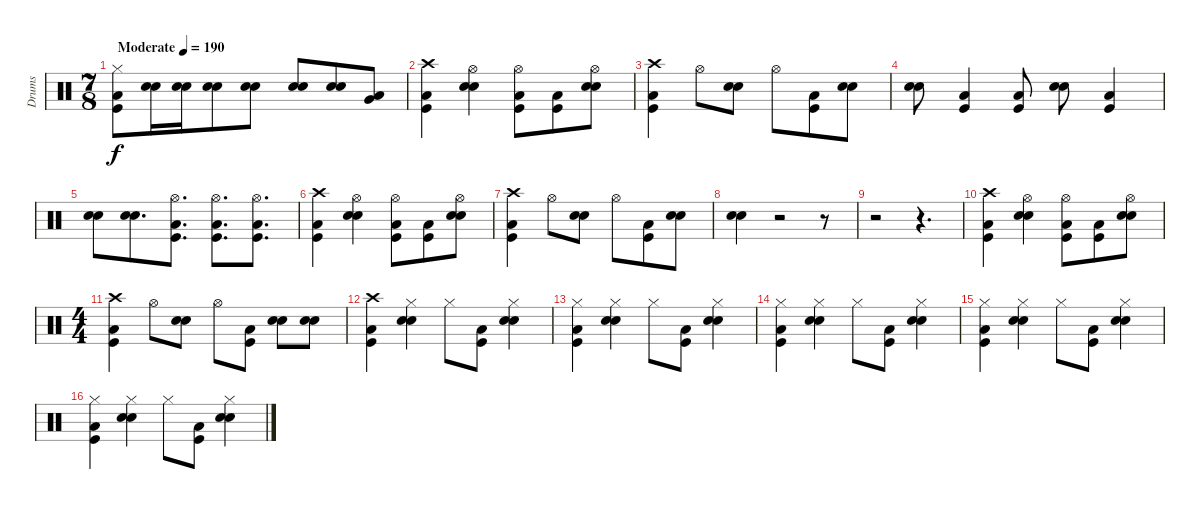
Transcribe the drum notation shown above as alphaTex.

\track ("Drums" "Drums") {instrument percussion}
\staff {score}
\articulation defaults
\ts (7 8)
\tempo (190 "Moderate")
\clef neutral
\ks c
("Hi-Hat (closed)" "Kick (hit)" "Low Tom (hit)").8{dy f} ("Snare (hit) 2" "Electric Snare (hit)").16 ("Snare (hit) 2" "Electric Snare (hit)").16 ("Snare (hit) 2" "Electric Snare (hit)").8 ("Snare (hit) 2" "Electric Snare (hit)").8 ("Snare (hit) 2" "Electric Snare (hit)").8 ("Snare (hit) 2" "Electric Snare (hit)").8 ("Very Low Tom (hit)" "Low Tom (hit)").8 |
("Crash high (hit)" "Kick (hit)" "Low Tom (hit)").4 ("Hi-Hat (open)" "Snare (hit) 2" "Electric Snare (hit)").4 ("Hi-Hat (open)" "Kick (hit)" "Low Tom (hit)").8 ("Kick (hit)" "Low Tom (hit)").8 ("Hi-Hat (open)" "Snare (hit) 2" "Electric Snare (hit)").8 |
("Crash high (hit)" "Kick (hit)" "Low Tom (hit)").4 "Hi-Hat (open)".8 ("Snare (hit) 2" "Electric Snare (hit)").8 "Hi-Hat (open)".8 ("Kick (hit)" "Low Tom (hit)").8 ("Snare (hit) 2" "Electric Snare (hit)").8 |
("Snare (hit) 2" "Electric Snare (hit)").8 ("Kick (hit)" "Low Tom (hit)").4 ("Kick (hit)" "Low Tom (hit)").8 ("Snare (hit) 2" "Electric Snare (hit)").8 ("Kick (hit)" "Low Tom (hit)").4 |
("Snare (hit) 2" "Electric Snare (hit)").8 ("Snare (hit) 2" "Electric Snare (hit)").8{d} ("Hi-Hat (open)" "Kick (hit)" "Low Tom (hit)").8{d} ("Hi-Hat (open)" "Kick (hit)" "Low Tom (hit)").8{d} ("Hi-Hat (open)" "Kick (hit)" "Low Tom (hit)").8{d} |
("Crash high (hit)" "Kick (hit)" "Low Tom (hit)").4 ("Hi-Hat (open)" "Snare (hit) 2" "Electric Snare (hit)").4 ("Hi-Hat (open)" "Kick (hit)" "Low Tom (hit)").8 ("Kick (hit)" "Low Tom (hit)").8 ("Hi-Hat (open)" "Snare (hit) 2" "Electric Snare (hit)").8 |
("Crash high (hit)" "Kick (hit)" "Low Tom (hit)").4 "Hi-Hat (open)".8 ("Snare (hit) 2" "Electric Snare (hit)").8 "Hi-Hat (open)".8 ("Kick (hit)" "Low Tom (hit)").8 ("Snare (hit) 2" "Electric Snare (hit)").8 |
("Snare (hit) 2" "Electric Snare (hit)").4 r.2 r.8 |
r.2 r.4{d} |
("Crash high (hit)" "Kick (hit)" "Low Tom (hit)").4 ("Hi-Hat (open)" "Snare (hit) 2" "Electric Snare (hit)").4 ("Hi-Hat (open)" "Kick (hit)" "Low Tom (hit)").8 ("Kick (hit)" "Low Tom (hit)").8 ("Hi-Hat (open)" "Snare (hit) 2" "Electric Snare (hit)").8 |
\ts (4 4)
("Crash high (hit)" "Kick (hit)" "Low Tom (hit)").4 "Hi-Hat (open)".8 ("Snare (hit) 2" "Electric Snare (hit)").8 "Hi-Hat (open)".8 ("Kick (hit)" "Low Tom (hit)").8 ("Snare (hit) 2" "Electric Snare (hit)").8 ("Snare (hit) 2" "Electric Snare (hit)").8 |
("Crash high (hit)" "Kick (hit)" "Low Tom (hit)").4 ("Hi-Hat (closed)" "Snare (hit) 2" "Electric Snare (hit)").4 "Hi-Hat (closed)".8 ("Kick (hit)" "Low Tom (hit)").8 ("Hi-Hat (closed)" "Snare (hit) 2" "Electric Snare (hit)").4 |
("Hi-Hat (closed)" "Kick (hit)" "Low Tom (hit)").4 ("Hi-Hat (closed)" "Snare (hit) 2" "Electric Snare (hit)").4 "Hi-Hat (closed)".8 ("Kick (hit)" "Low Tom (hit)").8 ("Hi-Hat (closed)" "Snare (hit) 2" "Electric Snare (hit)").4 |
("Hi-Hat (closed)" "Kick (hit)" "Low Tom (hit)").4 ("Hi-Hat (closed)" "Snare (hit) 2" "Electric Snare (hit)").4 "Hi-Hat (closed)".8 ("Kick (hit)" "Low Tom (hit)").8 ("Hi-Hat (closed)" "Snare (hit) 2" "Electric Snare (hit)").4 |
("Hi-Hat (closed)" "Kick (hit)" "Low Tom (hit)").4 ("Hi-Hat (closed)" "Snare (hit) 2" "Electric Snare (hit)").4 "Hi-Hat (closed)".8 ("Kick (hit)" "Low Tom (hit)").8 ("Hi-Hat (closed)" "Snare (hit) 2" "Electric Snare (hit)").4 |
("Hi-Hat (closed)" "Kick (hit)" "Low Tom (hit)").4 ("Hi-Hat (closed)" "Snare (hit) 2" "Electric Snare (hit)").4 "Hi-Hat (closed)".8 ("Kick (hit)" "Low Tom (hit)").8 ("Hi-Hat (closed)" "Snare (hit) 2" "Electric Snare (hit)").4
